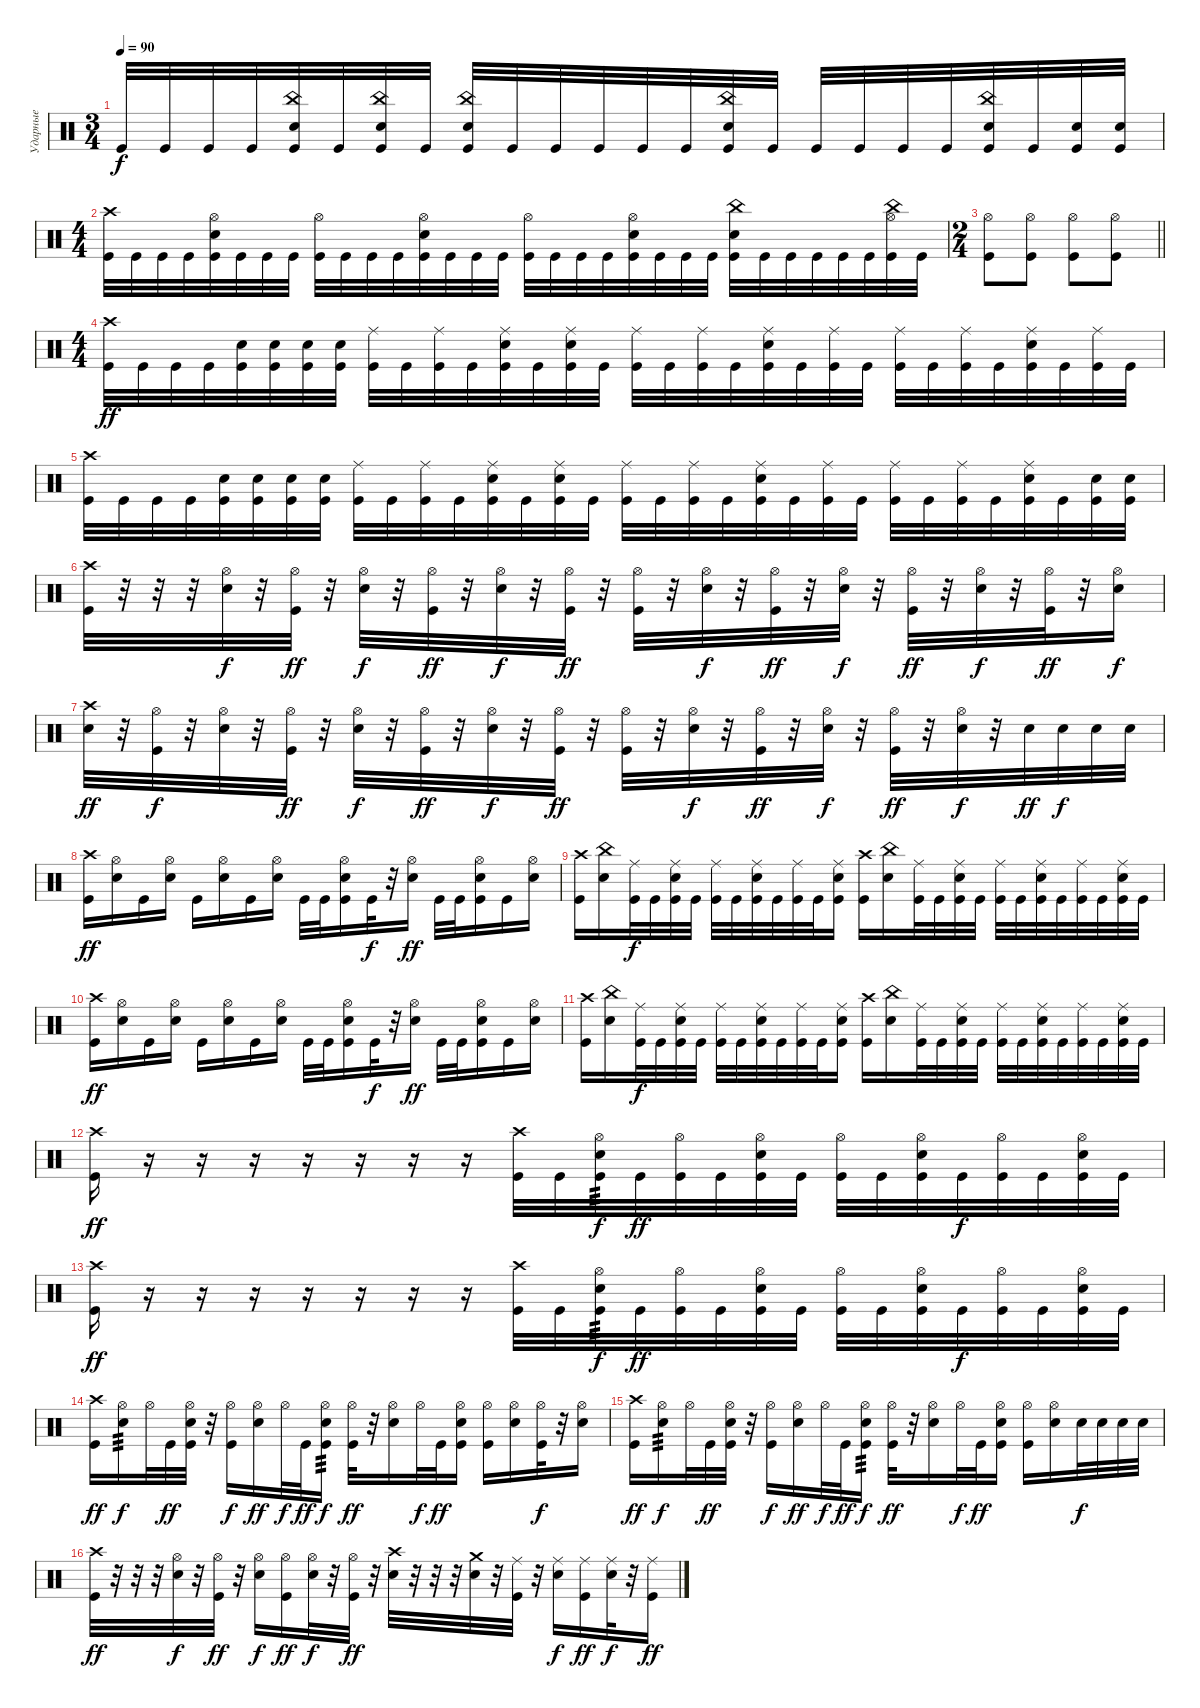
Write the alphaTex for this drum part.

\track ("Ударные" "Ударные") {instrument percussion}
\staff {score}
\articulation defaults
\ts (3 4)
\tempo 90
\clef neutral
\ks c "Kick (hit)".32{dy f} "Kick (hit)".32 "Kick (hit)".32 "Kick (hit)".32
("China (hit)" "Electric Snare (hit)" "Kick (hit)").32 "Kick (hit)".32 ("China (hit)" "Electric Snare (hit)" "Kick (hit)").32 "Kick (hit)".32 ("China (hit)" "Electric Snare (hit)" "Kick (hit)").32 "Kick (hit)".32 "Kick (hit)".32 "Kick (hit)".32 "Kick (hit)".32 "Kick (hit)".32 ("China (hit)" "Electric Snare (hit)" "Kick (hit)").32 "Kick (hit)".32 "Kick (hit)".32 "Kick (hit)".32 "Kick (hit)".32 "Kick (hit)".32 ("China (hit)" "Electric Snare (hit)" "Kick (hit)").32 "Kick (hit)".32 ("Electric Snare (hit)" "Kick (hit)").32 ("Electric Snare (hit)" "Kick (hit)").32 |
\ts (4 4)
("Crash high (hit)" "Kick (hit)").32 "Kick (hit)".32 "Kick (hit)".32 "Kick (hit)".32 ("Hi-Hat (open)" "Electric Snare (hit)" "Kick (hit)").32 "Kick (hit)".32 "Kick (hit)".32 "Kick (hit)".32 ("Hi-Hat (open)" "Kick (hit)").32 "Kick (hit)".32 "Kick (hit)".32 "Kick (hit)".32 ("Hi-Hat (open)" "Electric Snare (hit)" "Kick (hit)").32 "Kick (hit)".32 "Kick (hit)".32 "Kick (hit)".32 ("Hi-Hat (open)" "Kick (hit)").32 "Kick (hit)".32 "Kick (hit)".32 "Kick (hit)".32 ("Hi-Hat (open)" "Electric Snare (hit)" "Kick (hit)").32 "Kick (hit)".32 "Kick (hit)".32 "Kick (hit)".32 ("China (hit)" "Electric Snare (hit)" "Kick (hit)").32 "Kick (hit)".32 "Kick (hit)".32 "Kick (hit)".32 "Kick (hit)".32 "Kick (hit)".32 ("China (hit)" "Hi-Hat (open)" "Kick (hit)").32 "Kick (hit)".32 |
\ts (2 4)
\barLineRight lightlight
("Hi-Hat (open)" "Kick (hit)").8 ("Hi-Hat (open)" "Kick (hit)").8 ("Hi-Hat (open)" "Kick (hit)").8 ("Hi-Hat (open)" "Kick (hit)").8 |
\ts (4 4)
("Crash high (hit)" "Kick (hit)").32{dy ff} "Kick (hit)".32 "Kick (hit)".32 "Kick (hit)".32 ("Electric Snare (hit)" "Kick (hit)").32 ("Electric Snare (hit)" "Kick (hit)").32 ("Electric Snare (hit)" "Kick (hit)").32 ("Electric Snare (hit)" "Kick (hit)").32 ("Ride (middle)" "Kick (hit)").32 "Kick (hit)".32 ("Ride (middle)" "Kick (hit)").32 "Kick (hit)".32 ("Ride (middle)" "Electric Snare (hit)" "Kick (hit)").32 "Kick (hit)".32 ("Ride (middle)" "Electric Snare (hit)" "Kick (hit)").32 "Kick (hit)".32 ("Ride (middle)" "Kick (hit)").32 "Kick (hit)".32 ("Ride (middle)" "Kick (hit)").32 "Kick (hit)".32 ("Electric Snare (hit)" "Ride (middle)" "Kick (hit)").32 "Kick (hit)".32 ("Ride (middle)" "Kick (hit)").32 "Kick (hit)".32 ("Ride (middle)" "Kick (hit)").32 "Kick (hit)".32 ("Ride (middle)" "Kick (hit)").32 "Kick (hit)".32 ("Electric Snare (hit)" "Ride (middle)" "Kick (hit)").32 "Kick (hit)".32 ("Ride (middle)" "Kick (hit)").32 "Kick (hit)".32 |
("Crash high (hit)" "Kick (hit)").32 "Kick (hit)".32 "Kick (hit)".32 "Kick (hit)".32 ("Electric Snare (hit)" "Kick (hit)").32 ("Electric Snare (hit)" "Kick (hit)").32 ("Electric Snare (hit)" "Kick (hit)").32 ("Electric Snare (hit)" "Kick (hit)").32 ("Ride (middle)" "Kick (hit)").32 "Kick (hit)".32 ("Ride (middle)" "Kick (hit)").32 "Kick (hit)".32 ("Ride (middle)" "Electric Snare (hit)" "Kick (hit)").32 "Kick (hit)".32 ("Ride (middle)" "Electric Snare (hit)" "Kick (hit)").32 "Kick (hit)".32 ("Ride (middle)" "Kick (hit)").32 "Kick (hit)".32 ("Ride (middle)" "Kick (hit)").32 "Kick (hit)".32 ("Electric Snare (hit)" "Ride (middle)" "Kick (hit)").32 "Kick (hit)".32 ("Ride (middle)" "Kick (hit)").32 "Kick (hit)".32 ("Ride (middle)" "Kick (hit)").32 "Kick (hit)".32 ("Ride (middle)" "Kick (hit)").32 "Kick (hit)".32 ("Electric Snare (hit)" "Ride (middle)" "Kick (hit)").32 "Kick (hit)".32 ("Electric Snare (hit)" "Kick (hit)").32 ("Electric Snare (hit)" "Kick (hit)").32 |
("Crash high (hit)" "Kick (hit)").32 r.32 r.32 r.32 ("Hi-Hat (open)" "Electric Snare (hit)").32{dy f} r.32 ("Hi-Hat (open)" "Kick (hit)").32{dy ff} r.32 ("Hi-Hat (open)" "Electric Snare (hit)").32{dy f} r.32 ("Hi-Hat (open)" "Kick (hit)").32{dy ff} r.32 ("Hi-Hat (open)" "Electric Snare (hit)").32{dy f} r.32 ("Hi-Hat (open)" "Kick (hit)").32{dy ff} r.32 ("Hi-Hat (open)" "Kick (hit)").32 r.32 ("Hi-Hat (open)" "Electric Snare (hit)").32{dy f} r.32 ("Hi-Hat (open)" "Kick (hit)").32{dy ff} r.32 ("Hi-Hat (open)" "Electric Snare (hit)").32{dy f} r.32 ("Hi-Hat (open)" "Kick (hit)").32{dy ff} r.32 ("Hi-Hat (open)" "Electric Snare (hit)").32{dy f} r.32 ("Hi-Hat (open)" "Kick (hit)").32{dy ff} r.32 ("Hi-Hat (open)" "Electric Snare (hit)").16{dy f} |
("Crash high (hit)" "Electric Snare (hit)").32{dy ff} r.32 ("Hi-Hat (open)" "Kick (hit)").32{dy f} r.32 ("Hi-Hat (open)" "Electric Snare (hit)").32 r.32 ("Hi-Hat (open)" "Kick (hit)").32{dy ff} r.32 ("Hi-Hat (open)" "Electric Snare (hit)").32{dy f} r.32 ("Hi-Hat (open)" "Kick (hit)").32{dy ff} r.32 ("Hi-Hat (open)" "Electric Snare (hit)").32{dy f} r.32 ("Hi-Hat (open)" "Kick (hit)").32{dy ff} r.32 ("Hi-Hat (open)" "Kick (hit)").32 r.32 ("Hi-Hat (open)" "Electric Snare (hit)").32{dy f} r.32 ("Hi-Hat (open)" "Kick (hit)").32{dy ff} r.32 ("Hi-Hat (open)" "Electric Snare (hit)").32{dy f} r.32 ("Hi-Hat (open)" "Kick (hit)").32{dy ff} r.32 ("Hi-Hat (open)" "Electric Snare (hit)").32{dy f} r.32 "Electric Snare (hit)".32{dy ff} "Electric Snare (hit)".32{dy f} "Electric Snare (hit)".32 "Electric Snare (hit)".32 |
("Crash high (hit)" "Kick (hit)").16{dy ff} ("Hi-Hat (open)" "Electric Snare (hit)").16 "Kick (hit)".16 ("Hi-Hat (open)" "Electric Snare (hit)").16 "Kick (hit)".16 ("Hi-Hat (open)" "Electric Snare (hit)").16 "Kick (hit)".16 ("Hi-Hat (open)" "Electric Snare (hit)").16 "Kick (hit)".32 "Kick (hit)".32 ("Hi-Hat (open)" "Electric Snare (hit)" "Kick (hit)").16 "Kick (hit)".32{dy f} r.32 ("Hi-Hat (open)" "Electric Snare (hit)").16{dy ff} "Kick (hit)".32 "Kick (hit)".32 ("Hi-Hat (open)" "Electric Snare (hit)" "Kick (hit)").16 "Kick (hit)".16 ("Hi-Hat (open)" "Electric Snare (hit)").16 |
("Crash high (hit)" "Kick (hit)").16 ("China (hit)" "Electric Snare (hit)").16 ("Ride (middle)" "Kick (hit)").32{dy f} "Kick (hit)".32 ("Electric Snare (hit)" "Ride (middle)" "Kick (hit)").32 "Kick (hit)".32 ("Ride (middle)" "Kick (hit)").32 "Kick (hit)".32 ("Electric Snare (hit)" "Ride (middle)" "Kick (hit)").32 "Kick (hit)".32 ("Ride (middle)" "Kick (hit)").32 "Kick (hit)".32 ("Electric Snare (hit)" "Ride (middle)" "Kick (hit)").16 ("Crash high (hit)" "Kick (hit)").16 ("China (hit)" "Electric Snare (hit)").16 ("Ride (middle)" "Kick (hit)").32 "Kick (hit)".32 ("Electric Snare (hit)" "Ride (middle)" "Kick (hit)").32 "Kick (hit)".32 ("Ride (middle)" "Kick (hit)").32 "Kick (hit)".32 ("Electric Snare (hit)" "Ride (middle)" "Kick (hit)").32 "Kick (hit)".32 ("Ride (middle)" "Kick (hit)").32 "Kick (hit)".32 ("Electric Snare (hit)" "Ride (middle)" "Kick (hit)").32 "Kick (hit)".32 |
("Crash high (hit)" "Kick (hit)").16{dy ff} ("Hi-Hat (open)" "Electric Snare (hit)").16 "Kick (hit)".16 ("Hi-Hat (open)" "Electric Snare (hit)").16 "Kick (hit)".16 ("Hi-Hat (open)" "Electric Snare (hit)").16 "Kick (hit)".16 ("Hi-Hat (open)" "Electric Snare (hit)").16 "Kick (hit)".32 "Kick (hit)".32 ("Hi-Hat (open)" "Electric Snare (hit)" "Kick (hit)").16 "Kick (hit)".32{dy f} r.32 ("Hi-Hat (open)" "Electric Snare (hit)").16{dy ff} "Kick (hit)".32 "Kick (hit)".32 ("Hi-Hat (open)" "Electric Snare (hit)" "Kick (hit)").16 "Kick (hit)".16 ("Hi-Hat (open)" "Electric Snare (hit)").16 |
("Crash high (hit)" "Kick (hit)").16 ("China (hit)" "Electric Snare (hit)").16 ("Ride (middle)" "Kick (hit)").32{dy f} "Kick (hit)".32 ("Electric Snare (hit)" "Ride (middle)" "Kick (hit)").32 "Kick (hit)".32 ("Ride (middle)" "Kick (hit)").32 "Kick (hit)".32 ("Electric Snare (hit)" "Ride (middle)" "Kick (hit)").32 "Kick (hit)".32 ("Ride (middle)" "Kick (hit)").32 "Kick (hit)".32 ("Electric Snare (hit)" "Ride (middle)" "Kick (hit)").16 ("Crash high (hit)" "Kick (hit)").16 ("China (hit)" "Electric Snare (hit)").16 ("Ride (middle)" "Kick (hit)").32 "Kick (hit)".32 ("Electric Snare (hit)" "Ride (middle)" "Kick (hit)").32 "Kick (hit)".32 ("Ride (middle)" "Kick (hit)").32 "Kick (hit)".32 ("Electric Snare (hit)" "Ride (middle)" "Kick (hit)").32 "Kick (hit)".32 ("Ride (middle)" "Kick (hit)").32 "Kick (hit)".32 ("Electric Snare (hit)" "Ride (middle)" "Kick (hit)").32 "Kick (hit)".32 |
("Crash high (hit)" "Kick (hit)").16{dy ff} r.16 r.16 r.16 r.16 r.16 r.16 r.16 ("Crash high (hit)" "Kick (hit)").32 "Kick (hit)".32 ("Hi-Hat (open)" "Electric Snare (hit)" "Kick (hit)").32{tp 3 dy f} "Kick (hit)".32{dy ff} ("Hi-Hat (open)" "Kick (hit)").32 "Kick (hit)".32 ("Hi-Hat (open)" "Electric Snare (hit)" "Kick (hit)").32 "Kick (hit)".32 ("Hi-Hat (open)" "Kick (hit)").32 "Kick (hit)".32 ("Hi-Hat (open)" "Electric Snare (hit)" "Kick (hit)").32 "Kick (hit)".32{dy f} ("Hi-Hat (open)" "Kick (hit)").32 "Kick (hit)".32 ("Hi-Hat (open)" "Electric Snare (hit)" "Kick (hit)").32 "Kick (hit)".32 |
("Crash high (hit)" "Kick (hit)").16{dy ff} r.16 r.16 r.16 r.16 r.16 r.16 r.16 ("Crash high (hit)" "Kick (hit)").32 "Kick (hit)".32 ("Hi-Hat (open)" "Electric Snare (hit)" "Kick (hit)").32{tp 3 dy f} "Kick (hit)".32{dy ff} ("Hi-Hat (open)" "Kick (hit)").32 "Kick (hit)".32 ("Hi-Hat (open)" "Electric Snare (hit)" "Kick (hit)").32 "Kick (hit)".32 ("Hi-Hat (open)" "Kick (hit)").32 "Kick (hit)".32 ("Hi-Hat (open)" "Electric Snare (hit)" "Kick (hit)").32 "Kick (hit)".32{dy f} ("Hi-Hat (open)" "Kick (hit)").32 "Kick (hit)".32 ("Hi-Hat (open)" "Electric Snare (hit)" "Kick (hit)").32 "Kick (hit)".32 |
("Crash high (hit)" "Kick (hit)").16{dy ff} ("Electric Snare (hit)" "Hi-Hat (open)").16{tp 3 dy f} "Hi-Hat (open)".32 "Kick (hit)".32{dy ff} ("Hi-Hat (open)" "Electric Snare (hit)" "Kick (hit)").32 r.32 ("Hi-Hat (open)" "Kick (hit)").16{dy f} ("Hi-Hat (open)" "Electric Snare (hit)").16{dy ff} "Hi-Hat (open)".32{dy f} "Kick (hit)".32{dy ff} ("Hi-Hat (open)" "Electric Snare (hit)" "Kick (hit)").16{tp 3 dy f} ("Hi-Hat (open)" "Kick (hit)").32{dy ff} r.32 ("Hi-Hat (open)" "Electric Snare (hit)").16 "Hi-Hat (open)".32{dy f} "Kick (hit)".32{dy ff} ("Hi-Hat (open)" "Electric Snare (hit)" "Kick (hit)").16 ("Hi-Hat (open)" "Kick (hit)").16 ("Hi-Hat (open)" "Electric Snare (hit)").16 ("Hi-Hat (open)" "Kick (hit)").32{dy f} r.32 ("Hi-Hat (open)" "Electric Snare (hit)").16 |
("Crash high (hit)" "Kick (hit)").16{dy ff} ("Electric Snare (hit)" "Hi-Hat (open)").16{tp 3 dy f} "Hi-Hat (open)".32 "Kick (hit)".32{dy ff} ("Hi-Hat (open)" "Electric Snare (hit)" "Kick (hit)").32 r.32 ("Hi-Hat (open)" "Kick (hit)").16{dy f} ("Hi-Hat (open)" "Electric Snare (hit)").16{dy ff} "Hi-Hat (open)".32{dy f} "Kick (hit)".32{dy ff} ("Hi-Hat (open)" "Electric Snare (hit)" "Kick (hit)").16{tp 3 dy f} ("Hi-Hat (open)" "Kick (hit)").32{dy ff} r.32 ("Hi-Hat (open)" "Electric Snare (hit)").16 "Hi-Hat (open)".32{dy f} "Kick (hit)".32{dy ff} ("Hi-Hat (open)" "Electric Snare (hit)" "Kick (hit)").16 ("Hi-Hat (open)" "Kick (hit)").16 ("Hi-Hat (open)" "Electric Snare (hit)").16 "Electric Snare (hit)".32{dy f} "Electric Snare (hit)".32 "Electric Snare (hit)".32 "Electric Snare (hit)".32 |
("Crash high (hit)" "Kick (hit)").32{dy ff} r.32 r.32 r.32 ("Electric Snare (hit)" "Hi-Hat (open)").32{dy f} r.32 ("Hi-Hat (open)" "Kick (hit)").32{dy ff} r.32 ("Electric Snare (hit)" "Hi-Hat (open)").16{dy f} ("Hi-Hat (open)" "Kick (hit)").16{dy ff} ("Electric Snare (hit)" "Hi-Hat (open)").32{dy f} r.32 ("Hi-Hat (open)" "Kick (hit)").32{dy ff} r.32 ("Electric Snare (hit)" "Crash high (hit)").32 r.32 r.32 r.32 ("Electric Snare (hit)" "Crash medium (hit)").32 r.32 ("Ride (middle)" "Kick (hit)").32 r.32 ("Electric Snare (hit)" "Ride (middle)").16{dy f} ("Ride (middle)" "Kick (hit)").16{dy ff} ("Electric Snare (hit)" "Ride (middle)").32{dy f} r.32 ("Ride (middle)" "Kick (hit)").16{dy ff}
